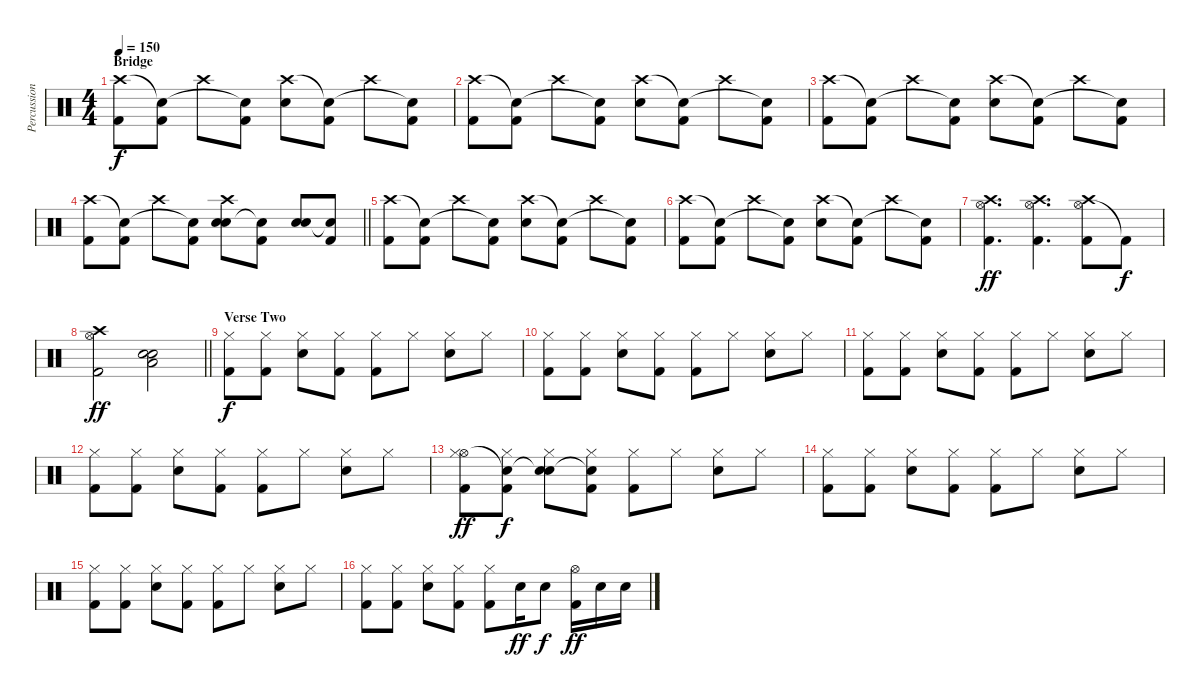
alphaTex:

\track ("Percussion" "Percussion") {instrument percussion}
\staff {score}
\articulation defaults
\ts (4 4)
\section ("" "Bridge")
\tempo 150
\clef neutral
\ks c
("Kick (hit) 2" "Crash high (hit)").8{dy f} ("Kick (hit) 2" "Snare (hit)"{t}).8 "Crash high (hit)".8 ("Kick (hit) 2" "Snare (hit)"{t}).8 ("Snare (hit) 2" "Crash high (hit)").8 ("Kick (hit) 2" "Snare (hit)"{t}).8 "Crash high (hit)".8 ("Kick (hit) 2" "Snare (hit)"{t}).8 |
("Kick (hit) 2" "Crash high (hit)").8 ("Kick (hit) 2" "Snare (hit)"{t}).8 "Crash high (hit)".8 ("Kick (hit) 2" "Snare (hit)"{t}).8 ("Snare (hit) 2" "Crash high (hit)").8 ("Kick (hit) 2" "Snare (hit)"{t}).8 "Crash high (hit)".8 ("Kick (hit) 2" "Snare (hit)"{t}).8 |
("Kick (hit) 2" "Crash high (hit)").8 ("Kick (hit) 2" "Snare (hit)"{t}).8 "Crash high (hit)".8 ("Kick (hit) 2" "Snare (hit)"{t}).8 ("Snare (hit) 2" "Crash high (hit)").8 ("Kick (hit) 2" "Snare (hit)"{t}).8 "Crash high (hit)".8 ("Kick (hit) 2" "Snare (hit)"{t}).8 |
\barLineRight lightlight
("Kick (hit) 2" "Crash high (hit)").8 ("Kick (hit) 2" "Snare (hit)"{t}).8 "Crash high (hit)".8 ("Kick (hit) 2" "Snare (hit)"{t}).8 ("Snare (hit) 2" "Electric Snare (hit)" "Crash high (hit)").8 ("Kick (hit) 2" "Snare (hit)"{t}).8 ("Snare (hit) 2" "Electric Snare (hit)").8 ("Kick (hit) 2" "Snare (hit)"{t}).8 |
("Kick (hit) 2" "Crash high (hit)").8 ("Kick (hit) 2" "Snare (hit)"{t}).8 "Crash high (hit)".8 ("Kick (hit) 2" "Snare (hit)"{t}).8 ("Snare (hit) 2" "Crash high (hit)").8 ("Kick (hit) 2" "Snare (hit)"{t}).8 "Crash high (hit)".8 ("Kick (hit) 2" "Snare (hit)"{t}).8 |
("Kick (hit) 2" "Crash high (hit)").8 ("Kick (hit) 2" "Snare (hit)"{t}).8 "Crash high (hit)".8 ("Kick (hit) 2" "Snare (hit)"{t}).8 ("Snare (hit) 2" "Crash high (hit)").8 ("Kick (hit) 2" "Snare (hit)"{t}).8 "Crash high (hit)".8 ("Kick (hit) 2" "Snare (hit)"{t}).8 |
("Hi-Hat (open)" "Kick (hit) 2" "Crash high (hit)").4{d dy ff} ("Hi-Hat (open)" "Kick (hit) 2" "Crash high (hit)").4{d} ("Hi-Hat (open)" "Kick (hit) 2" "Crash high (hit)").8 "Kick (hit) 2"{t}.8{dy f} |
\barLineRight lightlight
("Kick (hit) 2" "Hi-Hat (open)" "Crash high (hit)").2{dy ff} ("Low Tom (hit)" "Electric Snare (hit)" "Snare (hit) 2").2 |
\section ("" "Verse Two")
("Kick (hit) 2" "Hi-Hat (closed)").8{dy f} ("Kick (hit) 2" "Hi-Hat (closed)").8 ("Snare (hit) 2" "Hi-Hat (closed)").8 ("Kick (hit) 2" "Hi-Hat (closed)").8 ("Kick (hit) 2" "Hi-Hat (closed)").8 "Hi-Hat (closed)".8 ("Snare (hit) 2" "Hi-Hat (closed)").8 "Hi-Hat (closed)".8 |
("Kick (hit) 2" "Hi-Hat (closed)").8 ("Kick (hit) 2" "Hi-Hat (closed)").8 ("Snare (hit) 2" "Hi-Hat (closed)").8 ("Kick (hit) 2" "Hi-Hat (closed)").8 ("Kick (hit) 2" "Hi-Hat (closed)").8 "Hi-Hat (closed)".8 ("Snare (hit) 2" "Hi-Hat (closed)").8 "Hi-Hat (closed)".8 |
("Kick (hit) 2" "Hi-Hat (closed)").8 ("Kick (hit) 2" "Hi-Hat (closed)").8 ("Snare (hit) 2" "Hi-Hat (closed)").8 ("Kick (hit) 2" "Hi-Hat (closed)").8 ("Kick (hit) 2" "Hi-Hat (closed)").8 "Hi-Hat (closed)".8 ("Snare (hit) 2" "Hi-Hat (closed)").8 "Hi-Hat (closed)".8 |
("Kick (hit) 2" "Hi-Hat (closed)").8 ("Kick (hit) 2" "Hi-Hat (closed)").8 ("Snare (hit) 2" "Hi-Hat (closed)").8 ("Kick (hit) 2" "Hi-Hat (closed)").8 ("Kick (hit) 2" "Hi-Hat (closed)").8 "Hi-Hat (closed)".8 ("Snare (hit) 2" "Hi-Hat (closed)").8 "Hi-Hat (closed)".8 |
("Hi-Hat (open)" "Kick (hit) 2" "Hi-Hat (closed)").8{dy ff} ("Snare (hit)"{t} "Kick (hit) 2" "Hi-Hat (closed)").8{dy f} ("Snare (hit)"{t} "Snare (hit) 2" "Hi-Hat (closed)").8 ("Snare (hit)"{t} "Kick (hit) 2" "Hi-Hat (closed)").8 ("Kick (hit) 2" "Hi-Hat (closed)").8 "Hi-Hat (closed)".8 ("Snare (hit) 2" "Hi-Hat (closed)").8 "Hi-Hat (closed)".8 |
("Kick (hit) 2" "Hi-Hat (closed)").8 ("Kick (hit) 2" "Hi-Hat (closed)").8 ("Snare (hit) 2" "Hi-Hat (closed)").8 ("Kick (hit) 2" "Hi-Hat (closed)").8 ("Kick (hit) 2" "Hi-Hat (closed)").8 "Hi-Hat (closed)".8 ("Snare (hit) 2" "Hi-Hat (closed)").8 "Hi-Hat (closed)".8 |
("Kick (hit) 2" "Hi-Hat (closed)").8 ("Kick (hit) 2" "Hi-Hat (closed)").8 ("Snare (hit) 2" "Hi-Hat (closed)").8 ("Kick (hit) 2" "Hi-Hat (closed)").8 ("Kick (hit) 2" "Hi-Hat (closed)").8 "Hi-Hat (closed)".8 ("Snare (hit) 2" "Hi-Hat (closed)").8 "Hi-Hat (closed)".8 |
("Kick (hit) 2" "Hi-Hat (closed)").8 ("Kick (hit) 2" "Hi-Hat (closed)").8 ("Snare (hit) 2" "Hi-Hat (closed)").8 ("Kick (hit) 2" "Hi-Hat (closed)").8 ("Kick (hit) 2" "Hi-Hat (closed)").8 "Snare (hit) 2".16{dy ff} "Snare (hit) 2".8{dy f} ("Kick (hit) 2" "Hi-Hat (open)").16{dy ff} "Snare (hit) 2".16 "Snare (hit) 2".16
